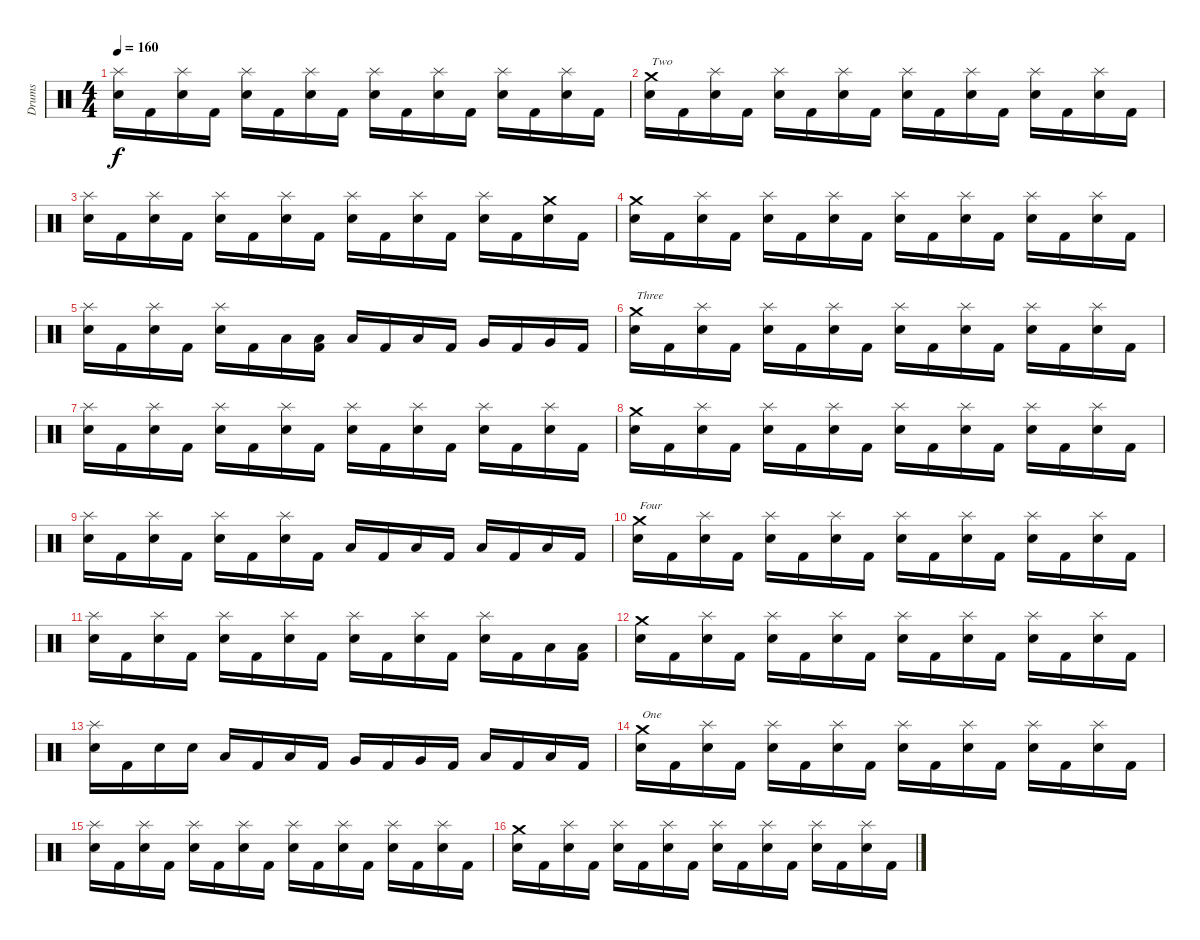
\track ("Drums" "Drums") {instrument percussion}
\staff {score}
\articulation defaults
\ts (4 4)
\tempo 160
\clef neutral
\ks c
("Splash (hit)" "Snare (hit) 2").16{dy f} "Kick (hit) 2".16 ("Splash (hit)" "Snare (hit) 2").16 "Kick (hit) 2".16 ("Splash (hit)" "Snare (hit) 2").16 "Kick (hit) 2".16 ("Splash (hit)" "Snare (hit) 2").16 "Kick (hit) 2".16 ("Splash (hit)" "Snare (hit) 2").16 "Kick (hit) 2".16 ("Splash (hit)" "Snare (hit) 2").16 "Kick (hit) 2".16 ("Splash (hit)" "Snare (hit) 2").16 "Kick (hit) 2".16 ("Splash (hit)" "Snare (hit) 2").16 "Kick (hit) 2".16 |
("Crash medium (hit)" "Snare (hit) 2").16{txt "Two"} "Kick (hit) 2".16 ("Splash (hit)" "Snare (hit) 2").16 "Kick (hit) 2".16 ("Splash (hit)" "Snare (hit) 2").16 "Kick (hit) 2".16 ("Splash (hit)" "Snare (hit) 2").16 "Kick (hit) 2".16 ("Splash (hit)" "Snare (hit) 2").16 "Kick (hit) 2".16 ("Splash (hit)" "Snare (hit) 2").16 "Kick (hit) 2".16 ("Splash (hit)" "Snare (hit) 2").16 "Kick (hit) 2".16 ("Splash (hit)" "Snare (hit) 2").16 "Kick (hit) 2".16 |
("Splash (hit)" "Snare (hit) 2").16 "Kick (hit) 2".16 ("Splash (hit)" "Snare (hit) 2").16 "Kick (hit) 2".16 ("Splash (hit)" "Snare (hit) 2").16 "Kick (hit) 2".16 ("Splash (hit)" "Snare (hit) 2").16 "Kick (hit) 2".16 ("Splash (hit)" "Snare (hit) 2").16 "Kick (hit) 2".16 ("Splash (hit)" "Snare (hit) 2").16 "Kick (hit) 2".16 ("Splash (hit)" "Snare (hit) 2").16 "Kick (hit) 2".16 ("Crash medium (hit)" "Snare (hit) 2").16 "Kick (hit) 2".16 |
("Crash medium (hit)" "Snare (hit) 2").16 "Kick (hit) 2".16 ("Splash (hit)" "Snare (hit) 2").16 "Kick (hit) 2".16 ("Splash (hit)" "Snare (hit) 2").16 "Kick (hit) 2".16 ("Splash (hit)" "Snare (hit) 2").16 "Kick (hit) 2".16 ("Splash (hit)" "Snare (hit) 2").16 "Kick (hit) 2".16 ("Splash (hit)" "Snare (hit) 2").16 "Kick (hit) 2".16 ("Splash (hit)" "Snare (hit) 2").16 "Kick (hit) 2".16 ("Splash (hit)" "Snare (hit) 2").16 "Kick (hit) 2".16 |
("Splash (hit)" "Snare (hit) 2").16 "Kick (hit) 2".16 ("Splash (hit)" "Snare (hit) 2").16 "Kick (hit) 2".16 ("Splash (hit)" "Snare (hit) 2").16 "Kick (hit) 2".16 "Low Tom (hit)".16 ("Low Tom (hit)" "Kick (hit) 2").16 "Low Tom (hit)".16 "Kick (hit) 2".16 "Low Tom (hit)".16 "Kick (hit) 2".16 "Very Low Tom (hit)".16 "Kick (hit) 2".16 "Very Low Tom (hit)".16 "Kick (hit) 2".16 |
("Crash medium (hit)" "Snare (hit) 2").16{txt "Three"} "Kick (hit) 2".16 ("Splash (hit)" "Snare (hit) 2").16 "Kick (hit) 2".16 ("Splash (hit)" "Snare (hit) 2").16 "Kick (hit) 2".16 ("Splash (hit)" "Snare (hit) 2").16 "Kick (hit) 2".16 ("Splash (hit)" "Snare (hit) 2").16 "Kick (hit) 2".16 ("Splash (hit)" "Snare (hit) 2").16 "Kick (hit) 2".16 ("Splash (hit)" "Snare (hit) 2").16 "Kick (hit) 2".16 ("Splash (hit)" "Snare (hit) 2").16 "Kick (hit) 2".16 |
("Splash (hit)" "Snare (hit) 2").16 "Kick (hit) 2".16 ("Splash (hit)" "Snare (hit) 2").16 "Kick (hit) 2".16 ("Splash (hit)" "Snare (hit) 2").16 "Kick (hit) 2".16 ("Splash (hit)" "Snare (hit) 2").16 "Kick (hit) 2".16 ("Splash (hit)" "Snare (hit) 2").16 "Kick (hit) 2".16 ("Splash (hit)" "Snare (hit) 2").16 "Kick (hit) 2".16 ("Splash (hit)" "Snare (hit) 2").16 "Kick (hit) 2".16 ("Splash (hit)" "Snare (hit) 2").16 "Kick (hit) 2".16 |
("Crash medium (hit)" "Snare (hit) 2").16 "Kick (hit) 2".16 ("Splash (hit)" "Snare (hit) 2").16 "Kick (hit) 2".16 ("Splash (hit)" "Snare (hit) 2").16 "Kick (hit) 2".16 ("Splash (hit)" "Snare (hit) 2").16 "Kick (hit) 2".16 ("Splash (hit)" "Snare (hit) 2").16 "Kick (hit) 2".16 ("Splash (hit)" "Snare (hit) 2").16 "Kick (hit) 2".16 ("Splash (hit)" "Snare (hit) 2").16 "Kick (hit) 2".16 ("Splash (hit)" "Snare (hit) 2").16 "Kick (hit) 2".16 |
("Splash (hit)" "Snare (hit) 2").16 "Kick (hit) 2".16 ("Splash (hit)" "Snare (hit) 2").16 "Kick (hit) 2".16 ("Splash (hit)" "Snare (hit) 2").16 "Kick (hit) 2".16 ("Splash (hit)" "Snare (hit) 2").16 "Kick (hit) 2".16 "Low Tom (hit)".16 "Kick (hit) 2".16 "Low Tom (hit)".16 "Kick (hit) 2".16 "Low Tom (hit)".16 "Kick (hit) 2".16 "Low Tom (hit)".16 "Kick (hit) 2".16 |
("Crash medium (hit)" "Snare (hit) 2").16{txt "Four"} "Kick (hit) 2".16 ("Splash (hit)" "Snare (hit) 2").16 "Kick (hit) 2".16 ("Splash (hit)" "Snare (hit) 2").16 "Kick (hit) 2".16 ("Splash (hit)" "Snare (hit) 2").16 "Kick (hit) 2".16 ("Splash (hit)" "Snare (hit) 2").16 "Kick (hit) 2".16 ("Splash (hit)" "Snare (hit) 2").16 "Kick (hit) 2".16 ("Splash (hit)" "Snare (hit) 2").16 "Kick (hit) 2".16 ("Splash (hit)" "Snare (hit) 2").16 "Kick (hit) 2".16 |
("Splash (hit)" "Snare (hit) 2").16 "Kick (hit) 2".16 ("Splash (hit)" "Snare (hit) 2").16 "Kick (hit) 2".16 ("Splash (hit)" "Snare (hit) 2").16 "Kick (hit) 2".16 ("Splash (hit)" "Snare (hit) 2").16 "Kick (hit) 2".16 ("Splash (hit)" "Snare (hit) 2").16 "Kick (hit) 2".16 ("Splash (hit)" "Snare (hit) 2").16 "Kick (hit) 2".16 ("Splash (hit)" "Snare (hit) 2").16 "Kick (hit) 2".16 "Low Tom (hit)".16 ("Low Tom (hit)" "Kick (hit) 2").16 |
("Crash medium (hit)" "Snare (hit) 2").16 "Kick (hit) 2".16 ("Splash (hit)" "Snare (hit) 2").16 "Kick (hit) 2".16 ("Splash (hit)" "Snare (hit) 2").16 "Kick (hit) 2".16 ("Splash (hit)" "Snare (hit) 2").16 "Kick (hit) 2".16 ("Splash (hit)" "Snare (hit) 2").16 "Kick (hit) 2".16 ("Splash (hit)" "Snare (hit) 2").16 "Kick (hit) 2".16 ("Splash (hit)" "Snare (hit) 2").16 "Kick (hit) 2".16 ("Splash (hit)" "Snare (hit) 2").16 "Kick (hit) 2".16 |
("Splash (hit)" "Snare (hit) 2").16 "Kick (hit) 2".16 "Snare (hit) 2".16 "Snare (hit) 2".16 "Low Tom (hit)".16 "Kick (hit) 2".16 "Low Tom (hit)".16 "Kick (hit) 2".16 "Very Low Tom (hit)".16 "Kick (hit) 2".16 "Very Low Tom (hit)".16 "Kick (hit) 2".16 "Low Floor Tom (hit)".16 "Kick (hit) 2".16 "Low Floor Tom (hit)".16 "Kick (hit) 2".16 |
("Crash medium (hit)" "Snare (hit) 2").16{txt "One"} "Kick (hit) 2".16 ("Splash (hit)" "Snare (hit) 2").16 "Kick (hit) 2".16 ("Splash (hit)" "Snare (hit) 2").16 "Kick (hit) 2".16 ("Splash (hit)" "Snare (hit) 2").16 "Kick (hit) 2".16 ("Splash (hit)" "Snare (hit) 2").16 "Kick (hit) 2".16 ("Splash (hit)" "Snare (hit) 2").16 "Kick (hit) 2".16 ("Splash (hit)" "Snare (hit) 2").16 "Kick (hit) 2".16 ("Splash (hit)" "Snare (hit) 2").16 "Kick (hit) 2".16 |
("Splash (hit)" "Snare (hit) 2").16 "Kick (hit) 2".16 ("Splash (hit)" "Snare (hit) 2").16 "Kick (hit) 2".16 ("Splash (hit)" "Snare (hit) 2").16 "Kick (hit) 2".16 ("Splash (hit)" "Snare (hit) 2").16 "Kick (hit) 2".16 ("Splash (hit)" "Snare (hit) 2").16 "Kick (hit) 2".16 ("Splash (hit)" "Snare (hit) 2").16 "Kick (hit) 2".16 ("Splash (hit)" "Snare (hit) 2").16 "Kick (hit) 2".16 ("Splash (hit)" "Snare (hit) 2").16 "Kick (hit) 2".16 |
("Crash medium (hit)" "Snare (hit) 2").16 "Kick (hit) 2".16 ("Splash (hit)" "Snare (hit) 2").16 "Kick (hit) 2".16 ("Splash (hit)" "Snare (hit) 2").16 "Kick (hit) 2".16 ("Splash (hit)" "Snare (hit) 2").16 "Kick (hit) 2".16 ("Splash (hit)" "Snare (hit) 2").16 "Kick (hit) 2".16 ("Splash (hit)" "Snare (hit) 2").16 "Kick (hit) 2".16 ("Splash (hit)" "Snare (hit) 2").16 "Kick (hit) 2".16 ("Splash (hit)" "Snare (hit) 2").16 "Kick (hit) 2".16
